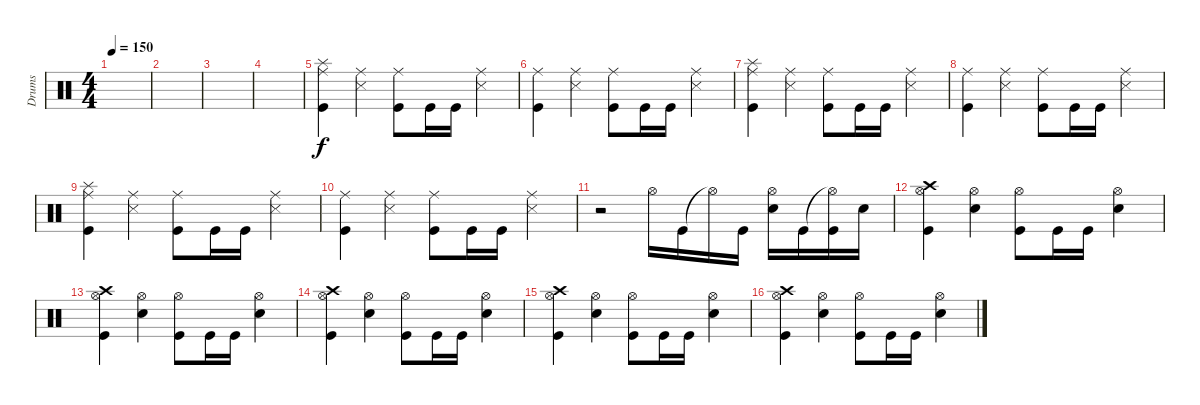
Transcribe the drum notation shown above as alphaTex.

\track ("Drums" "Drums") {instrument percussion}
\staff {score}
\articulation defaults
\ts (4 4)
\tempo 150
\clef neutral
\ks c
|
|
|
|
("Ride (middle)" "Splash (hit)" "Kick (hit)").4 ("Ride (middle)" "Snare (side stick) 3").4 ("Ride (middle)" "Kick (hit)").8 "Kick (hit)".16 "Kick (hit)".16 ("Ride (middle)" "Snare (side stick) 3").4 |
("Ride (middle)" "Kick (hit)").4 ("Ride (middle)" "Snare (side stick) 3").4 ("Ride (middle)" "Kick (hit)").8 "Kick (hit)".16 "Kick (hit)".16 ("Ride (middle)" "Snare (side stick) 3").4 |
("Ride (middle)" "Splash (hit)" "Kick (hit)").4 ("Ride (middle)" "Snare (side stick) 3").4 ("Ride (middle)" "Kick (hit)").8 "Kick (hit)".16 "Kick (hit)".16 ("Ride (middle)" "Snare (side stick) 3").4 |
("Ride (middle)" "Kick (hit)").4 ("Ride (middle)" "Snare (side stick) 3").4 ("Ride (middle)" "Kick (hit)").8 "Kick (hit)".16 "Kick (hit)".16 ("Ride (middle)" "Snare (side stick) 3").4 |
("Ride (middle)" "Splash (hit)" "Kick (hit)").4 ("Ride (middle)" "Snare (side stick) 3").4 ("Ride (middle)" "Kick (hit)").8 "Kick (hit)".16 "Kick (hit)".16 ("Ride (middle)" "Snare (side stick) 3").4 |
("Ride (middle)" "Kick (hit)").4 ("Ride (middle)" "Snare (side stick) 3").4 ("Ride (middle)" "Kick (hit)").8 "Kick (hit)".16 "Kick (hit)".16 ("Ride (middle)" "Snare (side stick) 3").4 |
r.2 "Hi-Hat (open)".16 "Kick (hit)".16 "Hi-Hat (open)"{t}.16 "Kick (hit)".16 ("Hi-Hat (open)" "Electric Snare (hit)").16 "Kick (hit)".16 ("Hi-Hat (open)"{t} "Kick (hit)").16 "Electric Snare (hit)".16 |
("Hi-Hat (open)" "Crash high (hit)" "Kick (hit)").4 ("Hi-Hat (open)" "Electric Snare (hit)").4 ("Hi-Hat (open)" "Kick (hit)").8 "Kick (hit)".16 "Kick (hit)".16 ("Hi-Hat (open)" "Electric Snare (hit)").4 |
("Hi-Hat (open)" "Crash high (hit)" "Kick (hit)").4 ("Hi-Hat (open)" "Electric Snare (hit)").4 ("Hi-Hat (open)" "Kick (hit)").8 "Kick (hit)".16 "Kick (hit)".16 ("Hi-Hat (open)" "Electric Snare (hit)").4 |
("Hi-Hat (open)" "Crash high (hit)" "Kick (hit)").4 ("Hi-Hat (open)" "Electric Snare (hit)").4 ("Hi-Hat (open)" "Kick (hit)").8 "Kick (hit)".16 "Kick (hit)".16 ("Hi-Hat (open)" "Electric Snare (hit)").4 |
("Hi-Hat (open)" "Crash high (hit)" "Kick (hit)").4 ("Hi-Hat (open)" "Electric Snare (hit)").4 ("Hi-Hat (open)" "Kick (hit)").8 "Kick (hit)".16 "Kick (hit)".16 ("Hi-Hat (open)" "Electric Snare (hit)").4 |
("Hi-Hat (open)" "Crash high (hit)" "Kick (hit)").4 ("Hi-Hat (open)" "Electric Snare (hit)").4 ("Hi-Hat (open)" "Kick (hit)").8 "Kick (hit)".16 "Kick (hit)".16 ("Hi-Hat (open)" "Electric Snare (hit)").4
